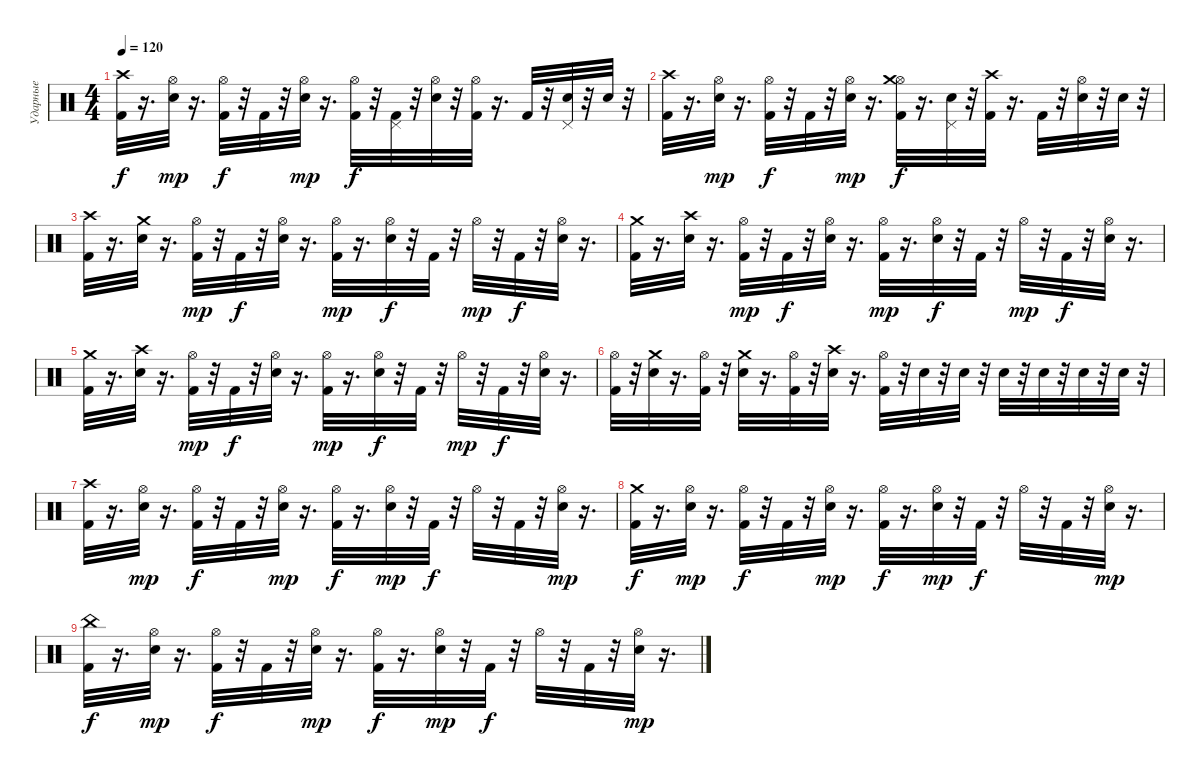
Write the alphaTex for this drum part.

\track ("Ударные" "Ударные") {instrument percussion}
\staff {score}
\articulation defaults
\ts (4 4)
\tempo 120
\clef neutral
\ks c
("Crash high (hit)" "Kick (hit) 2").32{dy f} r.16{d} ("Hi-Hat (open)" "Electric Snare (hit)").32{dy mp} r.16{d} ("Hi-Hat (open)" "Kick (hit) 2").32{dy f} r.32 "Kick (hit) 2".32 r.32 ("Hi-Hat (open)" "Electric Snare (hit)").32{dy mp} r.16{d} ("Hi-Hat (open)" "Kick (hit) 2").32{dy f} r.32 ("Kick (hit) 2" "Pedal Hi-Hat (hit)").32 r.32 ("Hi-Hat (open)" "Electric Snare (hit)").32 r.32 ("Kick (hit) 2" "Hi-Hat (open)").32 r.16{d} "Kick (hit) 2".32 r.32 ("Pedal Hi-Hat (hit)" "Electric Snare (hit)").32 r.32 "Electric Snare (hit)".32 r.32 |
("Crash high (hit)" "Kick (hit) 2").32 r.16{d} ("Hi-Hat (open)" "Electric Snare (hit)").32{dy mp} r.16{d} ("Hi-Hat (open)" "Kick (hit) 2").32{dy f} r.32 "Kick (hit) 2".32 r.32 ("Hi-Hat (open)" "Electric Snare (hit)").32{dy mp} r.16{d} ("Hi-Hat (open)" "Crash medium (hit)" "Kick (hit) 2").32{dy f} r.16{d} ("Pedal Hi-Hat (hit)" "Electric Snare (hit)").32 r.32 ("Crash high (hit)" "Kick (hit) 2").32 r.16{d} "Kick (hit) 2".32 r.32 ("Hi-Hat (open)" "Electric Snare (hit)").32 r.32 "Electric Snare (hit)".32 r.32 |
("Crash high (hit)" "Kick (hit) 2").32 r.16{d} ("Crash medium (hit)" "Electric Snare (hit)").32 r.16{d} ("Hi-Hat (open)" "Kick (hit) 2").32{dy mp} r.32 "Kick (hit) 2".32{dy f} r.32 ("Hi-Hat (open)" "Electric Snare (hit)").32 r.16{d} ("Hi-Hat (open)" "Kick (hit) 2").32{dy mp} r.16{d} ("Hi-Hat (open)" "Electric Snare (hit)").32{dy f} r.32 "Kick (hit) 2".32 r.32 "Hi-Hat (open)".32{dy mp} r.32 "Kick (hit) 2".32{dy f} r.32 ("Hi-Hat (open)" "Electric Snare (hit)").32 r.16{d} |
("Crash medium (hit)" "Kick (hit) 2").32 r.16{d} ("Electric Snare (hit)" "Crash high (hit)").32 r.16{d} ("Hi-Hat (open)" "Kick (hit) 2").32{dy mp} r.32 "Kick (hit) 2".32{dy f} r.32 ("Hi-Hat (open)" "Electric Snare (hit)").32 r.16{d} ("Hi-Hat (open)" "Kick (hit) 2").32{dy mp} r.16{d} ("Hi-Hat (open)" "Electric Snare (hit)").32{dy f} r.32 "Kick (hit) 2".32 r.32 "Hi-Hat (open)".32{dy mp} r.32 "Kick (hit) 2".32{dy f} r.32 ("Hi-Hat (open)" "Electric Snare (hit)").32 r.16{d} |
("Kick (hit) 2" "Crash medium (hit)").32 r.16{d} ("Electric Snare (hit)" "Crash high (hit)").32 r.16{d} ("Hi-Hat (open)" "Kick (hit) 2").32{dy mp} r.32 "Kick (hit) 2".32{dy f} r.32 ("Electric Snare (hit)" "Hi-Hat (open)").32 r.16{d} ("Hi-Hat (open)" "Kick (hit) 2").32{dy mp} r.16{d} ("Electric Snare (hit)" "Hi-Hat (open)").32{dy f} r.32 "Kick (hit) 2".32 r.32 "Hi-Hat (open)".32{dy mp} r.32 "Kick (hit) 2".32{dy f} r.32 ("Electric Snare (hit)" "Hi-Hat (open)").32 r.16{d} |
("Hi-Hat (open)" "Kick (hit) 2").32 r.32 ("Crash medium (hit)" "Electric Snare (hit)").32 r.16{d} ("Hi-Hat (open)" "Kick (hit) 2").32 r.32 ("Crash medium (hit)" "Electric Snare (hit)").32 r.16{d} ("Hi-Hat (open)" "Kick (hit) 2").32 r.32 ("Crash high (hit)" "Electric Snare (hit)").32 r.16{d} ("Hi-Hat (open)" "Kick (hit) 2").32 r.32 "Electric Snare (hit)".32 r.32 "Electric Snare (hit)".32 r.32 "Electric Snare (hit)".32 r.32 "Electric Snare (hit)".32 r.32 "Electric Snare (hit)".32 r.32 "Electric Snare (hit)".32 r.32 |
("Crash high (hit)" "Kick (hit) 2").32 r.16{d} ("Hi-Hat (open)" "Electric Snare (hit)").32{dy mp} r.16{d} ("Hi-Hat (open)" "Kick (hit) 2").32{dy f} r.32 "Kick (hit) 2".32 r.32 ("Hi-Hat (open)" "Electric Snare (hit)").32{dy mp} r.16{d} ("Hi-Hat (open)" "Kick (hit) 2").32{dy f} r.16{d} ("Hi-Hat (open)" "Electric Snare (hit)").32{dy mp} r.32 "Kick (hit) 2".32{dy f} r.32 "Hi-Hat (open)".32 r.32 "Kick (hit) 2".32 r.32 ("Hi-Hat (open)" "Electric Snare (hit)").32{dy mp} r.16{d} |
("Crash medium (hit)" "Kick (hit) 2").32{dy f} r.16{d} ("Hi-Hat (open)" "Electric Snare (hit)").32{dy mp} r.16{d} ("Hi-Hat (open)" "Kick (hit) 2").32{dy f} r.32 "Kick (hit) 2".32 r.32 ("Hi-Hat (open)" "Electric Snare (hit)").32{dy mp} r.16{d} ("Hi-Hat (open)" "Kick (hit) 2").32{dy f} r.16{d} ("Hi-Hat (open)" "Electric Snare (hit)").32{dy mp} r.32 "Kick (hit) 2".32{dy f} r.32 "Hi-Hat (open)".32 r.32 "Kick (hit) 2".32 r.32 ("Hi-Hat (open)" "Electric Snare (hit)").32{dy mp} r.16{d} |
("China (hit)" "Kick (hit) 2").32{dy f} r.16{d} ("Hi-Hat (open)" "Electric Snare (hit)").32{dy mp} r.16{d} ("Hi-Hat (open)" "Kick (hit) 2").32{dy f} r.32 "Kick (hit) 2".32 r.32 ("Hi-Hat (open)" "Electric Snare (hit)").32{dy mp} r.16{d} ("Hi-Hat (open)" "Kick (hit) 2").32{dy f} r.16{d} ("Hi-Hat (open)" "Electric Snare (hit)").32{dy mp} r.32 "Kick (hit) 2".32{dy f} r.32 "Hi-Hat (open)".32 r.32 "Kick (hit) 2".32 r.32 ("Hi-Hat (open)" "Electric Snare (hit)").32{dy mp} r.16{d}
